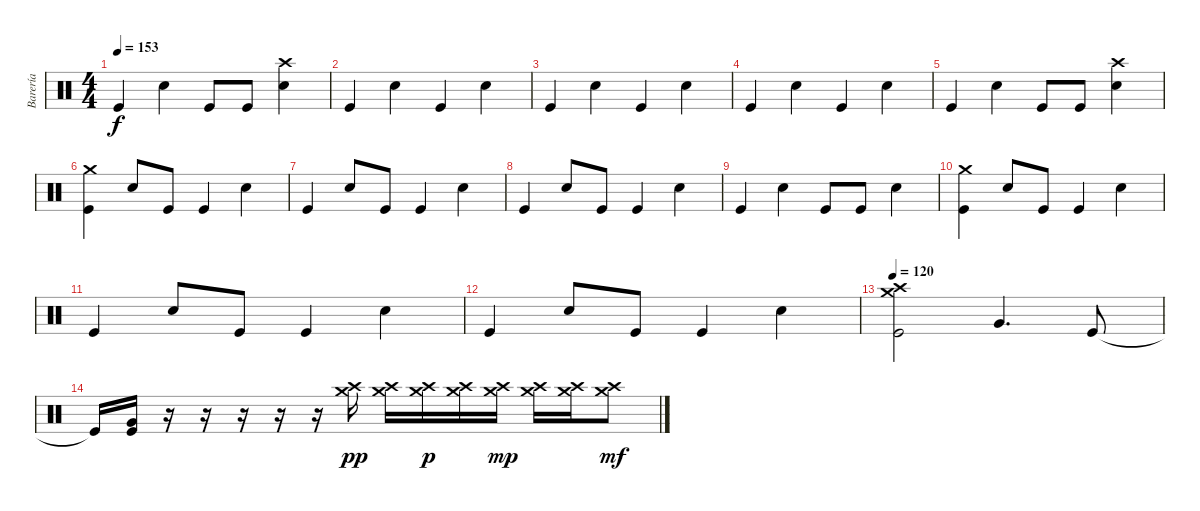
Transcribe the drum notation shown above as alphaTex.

\track ("Barería" "Barería") {instrument percussion}
\staff {score}
\articulation defaults
\ts (4 4)
\tempo 153
\clef neutral
\ks c "Kick (hit)".4{dy f} "Snare (hit) 2".4 "Kick (hit)".8 "Kick (hit)".8
("Crash high (hit)" "Snare (hit) 2").4 |
"Kick (hit)".4 "Snare (hit) 2".4 "Kick (hit)".4 "Snare (hit) 2".4 |
"Kick (hit)".4 "Snare (hit) 2".4 "Kick (hit)".4 "Snare (hit) 2".4 |
"Kick (hit)".4 "Snare (hit) 2".4 "Kick (hit)".4 "Snare (hit) 2".4 |
"Kick (hit)".4 "Snare (hit) 2".4 "Kick (hit)".8 "Kick (hit)".8 ("Crash high (hit)" "Snare (hit) 2").4 |
("Crash medium (hit)" "Kick (hit)").4 "Snare (hit) 2".8 "Kick (hit)".8 "Kick (hit)".4 "Snare (hit) 2".4 |
"Kick (hit)".4 "Snare (hit) 2".8 "Kick (hit)".8 "Kick (hit)".4 "Snare (hit) 2".4 |
"Kick (hit)".4 "Snare (hit) 2".8 "Kick (hit)".8 "Kick (hit)".4 "Snare (hit) 2".4 |
"Kick (hit)".4 "Snare (hit) 2".4 "Kick (hit)".8 "Kick (hit)".8 "Snare (hit) 2".4 |
("Crash medium (hit)" "Kick (hit)").4 "Snare (hit) 2".8 "Kick (hit)".8 "Kick (hit)".4 "Snare (hit) 2".4 |
"Kick (hit)".4 "Snare (hit) 2".8 "Kick (hit)".8 "Kick (hit)".4 "Snare (hit) 2".4 |
"Kick (hit)".4 "Snare (hit) 2".8 "Kick (hit)".8 "Kick (hit)".4 "Snare (hit) 2".4 |
\tempo 120
("Crash medium (hit)" "Crash high (hit)" "Kick (hit)").2 "Very Low Tom (hit)".4{d} "Kick (hit)".8 |
"Kick (hit)"{t}.16 ("Very Low Tom (hit)" "Kick (hit)").16 r.16 r.16 r.16 r.16 r.16 ("Crash high (hit)" "Crash medium (hit)").16{dy pp} ("Crash high (hit)" "Crash medium (hit)").16 ("Crash high (hit)" "Crash medium (hit)").16{dy p} ("Crash high (hit)" "Crash medium (hit)").16 ("Crash high (hit)" "Crash medium (hit)").16{dy mp} ("Crash high (hit)" "Crash medium (hit)").16 ("Crash high (hit)" "Crash medium (hit)").16 ("Crash high (hit)" "Crash medium (hit)").8{dy mf}
